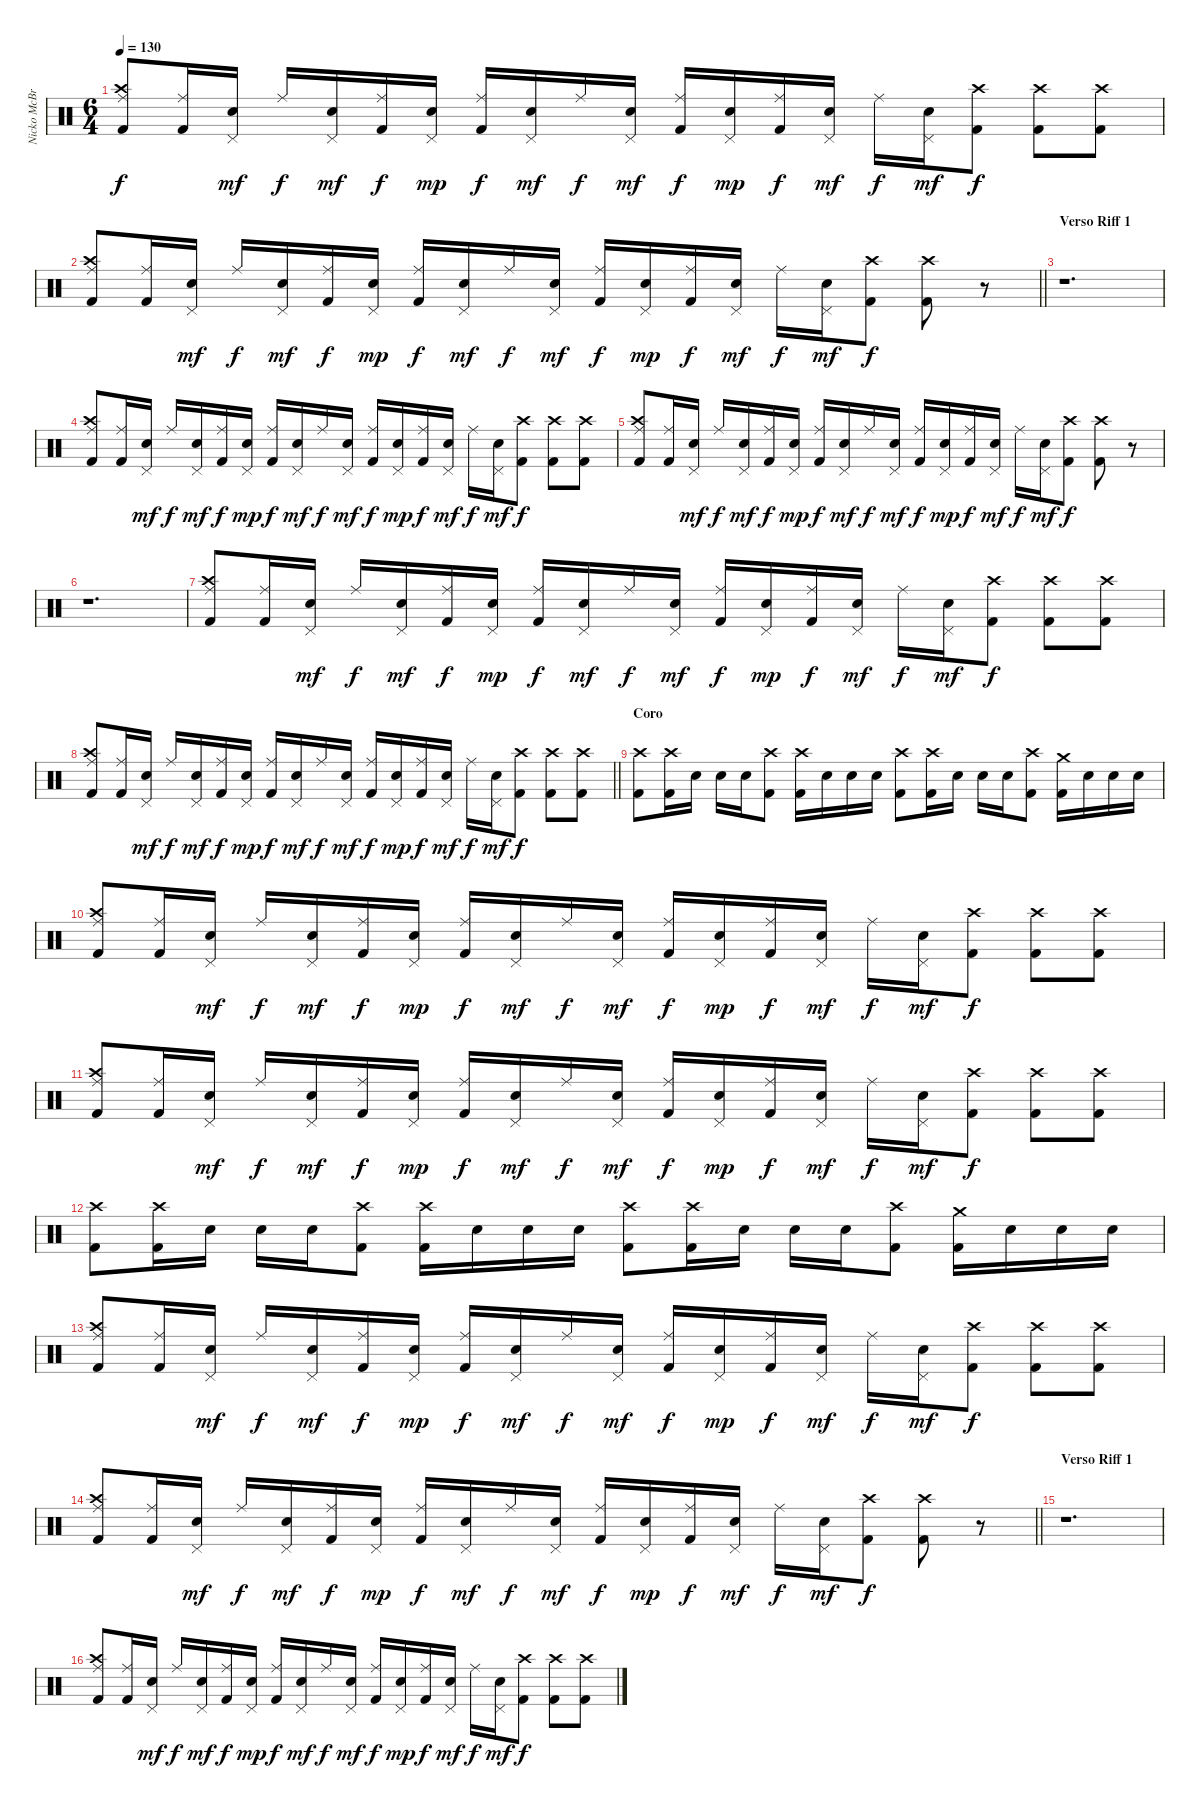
\track ("Nicko McBrain" "Nicko McBr") {instrument percussion}
\staff {score}
\articulation defaults
\ts (6 4)
\tempo 130
\clef neutral
\ks c
("Ride (middle)" "Crash high (hit)" "Kick (hit) 2").8{dy f} ("Ride (middle)" "Kick (hit) 2").16 ("Pedal Hi-Hat (hit)" "Snare (hit) 2").16{dy mf} "Ride (middle)".16{dy f} ("Pedal Hi-Hat (hit)" "Snare (hit) 2").16{dy mf} ("Ride (middle)" "Kick (hit) 2").16{dy f} ("Pedal Hi-Hat (hit)" "Snare (hit) 2").16{dy mp} ("Ride (middle)" "Kick (hit) 2").16{dy f} ("Pedal Hi-Hat (hit)" "Snare (hit) 2").16{dy mf} "Ride (middle)".16{dy f} ("Pedal Hi-Hat (hit)" "Snare (hit) 2").16{dy mf} ("Ride (middle)" "Kick (hit) 2").16{dy f} ("Pedal Hi-Hat (hit)" "Snare (hit) 2").16{dy mp} ("Ride (middle)" "Kick (hit) 2").16{dy f} ("Pedal Hi-Hat (hit)" "Snare (hit) 2").16{dy mf} "Ride (middle)".16{dy f} ("Pedal Hi-Hat (hit)" "Snare (hit) 2").16{dy mf} ("Crash high (hit)" "Kick (hit) 2").8{dy f} ("Crash high (hit)" "Kick (hit) 2").8 ("Crash high (hit)" "Kick (hit) 2").8 |
\barLineRight lightlight
("Ride (middle)" "Crash high (hit)" "Kick (hit) 2").8 ("Ride (middle)" "Kick (hit) 2").16 ("Pedal Hi-Hat (hit)" "Snare (hit) 2").16{dy mf} "Ride (middle)".16{dy f} ("Pedal Hi-Hat (hit)" "Snare (hit) 2").16{dy mf} ("Ride (middle)" "Kick (hit) 2").16{dy f} ("Pedal Hi-Hat (hit)" "Snare (hit) 2").16{dy mp} ("Ride (middle)" "Kick (hit) 2").16{dy f} ("Pedal Hi-Hat (hit)" "Snare (hit) 2").16{dy mf} "Ride (middle)".16{dy f} ("Pedal Hi-Hat (hit)" "Snare (hit) 2").16{dy mf} ("Ride (middle)" "Kick (hit) 2").16{dy f} ("Pedal Hi-Hat (hit)" "Snare (hit) 2").16{dy mp} ("Ride (middle)" "Kick (hit) 2").16{dy f} ("Pedal Hi-Hat (hit)" "Snare (hit) 2").16{dy mf} "Ride (middle)".16{dy f} ("Pedal Hi-Hat (hit)" "Snare (hit) 2").16{dy mf} ("Crash high (hit)" "Kick (hit) 2").8{dy f} ("Crash high (hit)" "Kick (hit) 2").8 r.8 |
\section ("" "Verso Riff 1")
r.1{d} |
("Ride (middle)" "Crash high (hit)" "Kick (hit) 2").8 ("Ride (middle)" "Kick (hit) 2").16 ("Pedal Hi-Hat (hit)" "Snare (hit) 2").16{dy mf} "Ride (middle)".16{dy f} ("Pedal Hi-Hat (hit)" "Snare (hit) 2").16{dy mf} ("Ride (middle)" "Kick (hit) 2").16{dy f} ("Pedal Hi-Hat (hit)" "Snare (hit) 2").16{dy mp} ("Ride (middle)" "Kick (hit) 2").16{dy f} ("Pedal Hi-Hat (hit)" "Snare (hit) 2").16{dy mf} "Ride (middle)".16{dy f} ("Pedal Hi-Hat (hit)" "Snare (hit) 2").16{dy mf} ("Ride (middle)" "Kick (hit) 2").16{dy f} ("Pedal Hi-Hat (hit)" "Snare (hit) 2").16{dy mp} ("Ride (middle)" "Kick (hit) 2").16{dy f} ("Pedal Hi-Hat (hit)" "Snare (hit) 2").16{dy mf} "Ride (middle)".16{dy f} ("Pedal Hi-Hat (hit)" "Snare (hit) 2").16{dy mf} ("Crash high (hit)" "Kick (hit) 2").8{dy f} ("Crash high (hit)" "Kick (hit) 2").8 ("Crash high (hit)" "Kick (hit) 2").8 |
("Ride (middle)" "Crash high (hit)" "Kick (hit) 2").8 ("Ride (middle)" "Kick (hit) 2").16 ("Pedal Hi-Hat (hit)" "Snare (hit) 2").16{dy mf} "Ride (middle)".16{dy f} ("Pedal Hi-Hat (hit)" "Snare (hit) 2").16{dy mf} ("Ride (middle)" "Kick (hit) 2").16{dy f} ("Pedal Hi-Hat (hit)" "Snare (hit) 2").16{dy mp} ("Ride (middle)" "Kick (hit) 2").16{dy f} ("Pedal Hi-Hat (hit)" "Snare (hit) 2").16{dy mf} "Ride (middle)".16{dy f} ("Pedal Hi-Hat (hit)" "Snare (hit) 2").16{dy mf} ("Ride (middle)" "Kick (hit) 2").16{dy f} ("Pedal Hi-Hat (hit)" "Snare (hit) 2").16{dy mp} ("Ride (middle)" "Kick (hit) 2").16{dy f} ("Pedal Hi-Hat (hit)" "Snare (hit) 2").16{dy mf} "Ride (middle)".16{dy f} ("Pedal Hi-Hat (hit)" "Snare (hit) 2").16{dy mf} ("Crash high (hit)" "Kick (hit) 2").8{dy f} ("Crash high (hit)" "Kick (hit) 2").8 r.8 |
r.1{d} |
("Ride (middle)" "Crash high (hit)" "Kick (hit) 2").8 ("Ride (middle)" "Kick (hit) 2").16 ("Pedal Hi-Hat (hit)" "Snare (hit) 2").16{dy mf} "Ride (middle)".16{dy f} ("Pedal Hi-Hat (hit)" "Snare (hit) 2").16{dy mf} ("Ride (middle)" "Kick (hit) 2").16{dy f} ("Pedal Hi-Hat (hit)" "Snare (hit) 2").16{dy mp} ("Ride (middle)" "Kick (hit) 2").16{dy f} ("Pedal Hi-Hat (hit)" "Snare (hit) 2").16{dy mf} "Ride (middle)".16{dy f} ("Pedal Hi-Hat (hit)" "Snare (hit) 2").16{dy mf} ("Ride (middle)" "Kick (hit) 2").16{dy f} ("Pedal Hi-Hat (hit)" "Snare (hit) 2").16{dy mp} ("Ride (middle)" "Kick (hit) 2").16{dy f} ("Pedal Hi-Hat (hit)" "Snare (hit) 2").16{dy mf} "Ride (middle)".16{dy f} ("Pedal Hi-Hat (hit)" "Snare (hit) 2").16{dy mf} ("Crash high (hit)" "Kick (hit) 2").8{dy f} ("Crash high (hit)" "Kick (hit) 2").8 ("Crash high (hit)" "Kick (hit) 2").8 |
\barLineRight lightlight
("Ride (middle)" "Crash high (hit)" "Kick (hit) 2").8 ("Ride (middle)" "Kick (hit) 2").16 ("Pedal Hi-Hat (hit)" "Snare (hit) 2").16{dy mf} "Ride (middle)".16{dy f} ("Pedal Hi-Hat (hit)" "Snare (hit) 2").16{dy mf} ("Ride (middle)" "Kick (hit) 2").16{dy f} ("Pedal Hi-Hat (hit)" "Snare (hit) 2").16{dy mp} ("Ride (middle)" "Kick (hit) 2").16{dy f} ("Pedal Hi-Hat (hit)" "Snare (hit) 2").16{dy mf} "Ride (middle)".16{dy f} ("Pedal Hi-Hat (hit)" "Snare (hit) 2").16{dy mf} ("Ride (middle)" "Kick (hit) 2").16{dy f} ("Pedal Hi-Hat (hit)" "Snare (hit) 2").16{dy mp} ("Ride (middle)" "Kick (hit) 2").16{dy f} ("Pedal Hi-Hat (hit)" "Snare (hit) 2").16{dy mf} "Ride (middle)".16{dy f} ("Pedal Hi-Hat (hit)" "Snare (hit) 2").16{dy mf} ("Crash high (hit)" "Kick (hit) 2").8{dy f} ("Crash high (hit)" "Kick (hit) 2").8 ("Crash high (hit)" "Kick (hit) 2").8 |
\section ("" "Coro")
("Crash high (hit)" "Kick (hit) 2").8 ("Crash high (hit)" "Kick (hit) 2").16 "Snare (hit) 2".16 "Snare (hit) 2".16 "Snare (hit) 2".16 ("Crash high (hit)" "Kick (hit) 2").8 ("Crash high (hit)" "Kick (hit) 2").16 "Snare (hit) 2".16 "Snare (hit) 2".16 "Snare (hit) 2".16 ("Crash high (hit)" "Kick (hit) 2").8 ("Crash high (hit)" "Kick (hit) 2").16 "Snare (hit) 2".16 "Snare (hit) 2".16 "Snare (hit) 2".16 ("Crash high (hit)" "Kick (hit) 2").8 ("Crash medium (hit)" "Kick (hit) 2").16 "Snare (hit) 2".16 "Snare (hit) 2".16 "Snare (hit) 2".16 |
("Ride (middle)" "Crash high (hit)" "Kick (hit) 2").8 ("Ride (middle)" "Kick (hit) 2").16 ("Pedal Hi-Hat (hit)" "Snare (hit) 2").16{dy mf} "Ride (middle)".16{dy f} ("Pedal Hi-Hat (hit)" "Snare (hit) 2").16{dy mf} ("Ride (middle)" "Kick (hit) 2").16{dy f} ("Pedal Hi-Hat (hit)" "Snare (hit) 2").16{dy mp} ("Ride (middle)" "Kick (hit) 2").16{dy f} ("Pedal Hi-Hat (hit)" "Snare (hit) 2").16{dy mf} "Ride (middle)".16{dy f} ("Pedal Hi-Hat (hit)" "Snare (hit) 2").16{dy mf} ("Ride (middle)" "Kick (hit) 2").16{dy f} ("Pedal Hi-Hat (hit)" "Snare (hit) 2").16{dy mp} ("Ride (middle)" "Kick (hit) 2").16{dy f} ("Pedal Hi-Hat (hit)" "Snare (hit) 2").16{dy mf} "Ride (middle)".16{dy f} ("Pedal Hi-Hat (hit)" "Snare (hit) 2").16{dy mf} ("Crash high (hit)" "Kick (hit) 2").8{dy f} ("Crash high (hit)" "Kick (hit) 2").8 ("Crash high (hit)" "Kick (hit) 2").8 |
("Ride (middle)" "Crash high (hit)" "Kick (hit) 2").8 ("Ride (middle)" "Kick (hit) 2").16 ("Pedal Hi-Hat (hit)" "Snare (hit) 2").16{dy mf} "Ride (middle)".16{dy f} ("Pedal Hi-Hat (hit)" "Snare (hit) 2").16{dy mf} ("Ride (middle)" "Kick (hit) 2").16{dy f} ("Pedal Hi-Hat (hit)" "Snare (hit) 2").16{dy mp} ("Ride (middle)" "Kick (hit) 2").16{dy f} ("Pedal Hi-Hat (hit)" "Snare (hit) 2").16{dy mf} "Ride (middle)".16{dy f} ("Pedal Hi-Hat (hit)" "Snare (hit) 2").16{dy mf} ("Ride (middle)" "Kick (hit) 2").16{dy f} ("Pedal Hi-Hat (hit)" "Snare (hit) 2").16{dy mp} ("Ride (middle)" "Kick (hit) 2").16{dy f} ("Pedal Hi-Hat (hit)" "Snare (hit) 2").16{dy mf} "Ride (middle)".16{dy f} ("Pedal Hi-Hat (hit)" "Snare (hit) 2").16{dy mf} ("Crash high (hit)" "Kick (hit) 2").8{dy f} ("Crash high (hit)" "Kick (hit) 2").8 ("Crash high (hit)" "Kick (hit) 2").8 |
("Crash high (hit)" "Kick (hit) 2").8 ("Crash high (hit)" "Kick (hit) 2").16 "Snare (hit) 2".16 "Snare (hit) 2".16 "Snare (hit) 2".16 ("Crash high (hit)" "Kick (hit) 2").8 ("Crash high (hit)" "Kick (hit) 2").16 "Snare (hit) 2".16 "Snare (hit) 2".16 "Snare (hit) 2".16 ("Crash high (hit)" "Kick (hit) 2").8 ("Crash high (hit)" "Kick (hit) 2").16 "Snare (hit) 2".16 "Snare (hit) 2".16 "Snare (hit) 2".16 ("Crash high (hit)" "Kick (hit) 2").8 ("Crash medium (hit)" "Kick (hit) 2").16 "Snare (hit) 2".16 "Snare (hit) 2".16 "Snare (hit) 2".16 |
("Ride (middle)" "Crash high (hit)" "Kick (hit) 2").8 ("Ride (middle)" "Kick (hit) 2").16 ("Pedal Hi-Hat (hit)" "Snare (hit) 2").16{dy mf} "Ride (middle)".16{dy f} ("Pedal Hi-Hat (hit)" "Snare (hit) 2").16{dy mf} ("Ride (middle)" "Kick (hit) 2").16{dy f} ("Pedal Hi-Hat (hit)" "Snare (hit) 2").16{dy mp} ("Ride (middle)" "Kick (hit) 2").16{dy f} ("Pedal Hi-Hat (hit)" "Snare (hit) 2").16{dy mf} "Ride (middle)".16{dy f} ("Pedal Hi-Hat (hit)" "Snare (hit) 2").16{dy mf} ("Ride (middle)" "Kick (hit) 2").16{dy f} ("Pedal Hi-Hat (hit)" "Snare (hit) 2").16{dy mp} ("Ride (middle)" "Kick (hit) 2").16{dy f} ("Pedal Hi-Hat (hit)" "Snare (hit) 2").16{dy mf} "Ride (middle)".16{dy f} ("Pedal Hi-Hat (hit)" "Snare (hit) 2").16{dy mf} ("Crash high (hit)" "Kick (hit) 2").8{dy f} ("Crash high (hit)" "Kick (hit) 2").8 ("Crash high (hit)" "Kick (hit) 2").8 |
\barLineRight lightlight
("Ride (middle)" "Crash high (hit)" "Kick (hit) 2").8 ("Ride (middle)" "Kick (hit) 2").16 ("Pedal Hi-Hat (hit)" "Snare (hit) 2").16{dy mf} "Ride (middle)".16{dy f} ("Pedal Hi-Hat (hit)" "Snare (hit) 2").16{dy mf} ("Ride (middle)" "Kick (hit) 2").16{dy f} ("Pedal Hi-Hat (hit)" "Snare (hit) 2").16{dy mp} ("Ride (middle)" "Kick (hit) 2").16{dy f} ("Pedal Hi-Hat (hit)" "Snare (hit) 2").16{dy mf} "Ride (middle)".16{dy f} ("Pedal Hi-Hat (hit)" "Snare (hit) 2").16{dy mf} ("Ride (middle)" "Kick (hit) 2").16{dy f} ("Pedal Hi-Hat (hit)" "Snare (hit) 2").16{dy mp} ("Ride (middle)" "Kick (hit) 2").16{dy f} ("Pedal Hi-Hat (hit)" "Snare (hit) 2").16{dy mf} "Ride (middle)".16{dy f} ("Pedal Hi-Hat (hit)" "Snare (hit) 2").16{dy mf} ("Crash high (hit)" "Kick (hit) 2").8{dy f} ("Crash high (hit)" "Kick (hit) 2").8 r.8 |
\section ("" "Verso Riff 1")
r.1{d} |
("Ride (middle)" "Crash high (hit)" "Kick (hit) 2").8 ("Ride (middle)" "Kick (hit) 2").16 ("Pedal Hi-Hat (hit)" "Snare (hit) 2").16{dy mf} "Ride (middle)".16{dy f} ("Pedal Hi-Hat (hit)" "Snare (hit) 2").16{dy mf} ("Ride (middle)" "Kick (hit) 2").16{dy f} ("Pedal Hi-Hat (hit)" "Snare (hit) 2").16{dy mp} ("Ride (middle)" "Kick (hit) 2").16{dy f} ("Pedal Hi-Hat (hit)" "Snare (hit) 2").16{dy mf} "Ride (middle)".16{dy f} ("Pedal Hi-Hat (hit)" "Snare (hit) 2").16{dy mf} ("Ride (middle)" "Kick (hit) 2").16{dy f} ("Pedal Hi-Hat (hit)" "Snare (hit) 2").16{dy mp} ("Ride (middle)" "Kick (hit) 2").16{dy f} ("Pedal Hi-Hat (hit)" "Snare (hit) 2").16{dy mf} "Ride (middle)".16{dy f} ("Pedal Hi-Hat (hit)" "Snare (hit) 2").16{dy mf} ("Crash high (hit)" "Kick (hit) 2").8{dy f} ("Crash high (hit)" "Kick (hit) 2").8 ("Crash high (hit)" "Kick (hit) 2").8
